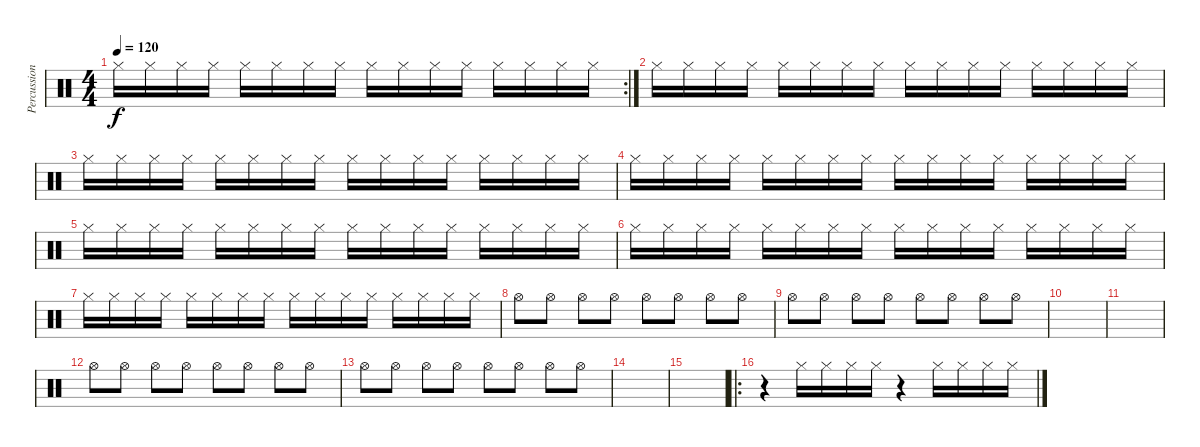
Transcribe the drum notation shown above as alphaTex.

\track ("Percussion" "Percussion") {instrument percussion}
\staff {score}
\articulation defaults
\rc 2
\ts (4 4)
\tempo 120
\clef neutral
\ks c "Hi-Hat (closed)".16{dy f} "Hi-Hat (closed)".16 "Hi-Hat (closed)".16 "Hi-Hat (closed)".16 "Hi-Hat (closed)".16 "Hi-Hat (closed)".16 "Hi-Hat (closed)".16 "Hi-Hat (closed)".16 "Hi-Hat (closed)".16 "Hi-Hat (closed)".16 "Hi-Hat (closed)".16 "Hi-Hat (closed)".16 "Hi-Hat (closed)".16 "Hi-Hat (closed)".16 "Hi-Hat (closed)".16 "Hi-Hat (closed)".16
|
"Hi-Hat (closed)".16 "Hi-Hat (closed)".16 "Hi-Hat (closed)".16 "Hi-Hat (closed)".16 "Hi-Hat (closed)".16 "Hi-Hat (closed)".16 "Hi-Hat (closed)".16 "Hi-Hat (closed)".16 "Hi-Hat (closed)".16 "Hi-Hat (closed)".16 "Hi-Hat (closed)".16 "Hi-Hat (closed)".16 "Hi-Hat (closed)".16 "Hi-Hat (closed)".16 "Hi-Hat (closed)".16 "Hi-Hat (closed)".16 |
"Hi-Hat (closed)".16 "Hi-Hat (closed)".16 "Hi-Hat (closed)".16 "Hi-Hat (closed)".16 "Hi-Hat (closed)".16 "Hi-Hat (closed)".16 "Hi-Hat (closed)".16 "Hi-Hat (closed)".16 "Hi-Hat (closed)".16 "Hi-Hat (closed)".16 "Hi-Hat (closed)".16 "Hi-Hat (closed)".16 "Hi-Hat (closed)".16 "Hi-Hat (closed)".16 "Hi-Hat (closed)".16 "Hi-Hat (closed)".16 |
"Hi-Hat (closed)".16 "Hi-Hat (closed)".16 "Hi-Hat (closed)".16 "Hi-Hat (closed)".16 "Hi-Hat (closed)".16 "Hi-Hat (closed)".16 "Hi-Hat (closed)".16 "Hi-Hat (closed)".16 "Hi-Hat (closed)".16 "Hi-Hat (closed)".16 "Hi-Hat (closed)".16 "Hi-Hat (closed)".16 "Hi-Hat (closed)".16 "Hi-Hat (closed)".16 "Hi-Hat (closed)".16 "Hi-Hat (closed)".16 |
"Hi-Hat (closed)".16 "Hi-Hat (closed)".16 "Hi-Hat (closed)".16 "Hi-Hat (closed)".16 "Hi-Hat (closed)".16 "Hi-Hat (closed)".16 "Hi-Hat (closed)".16 "Hi-Hat (closed)".16 "Hi-Hat (closed)".16 "Hi-Hat (closed)".16 "Hi-Hat (closed)".16 "Hi-Hat (closed)".16 "Hi-Hat (closed)".16 "Hi-Hat (closed)".16 "Hi-Hat (closed)".16 "Hi-Hat (closed)".16 |
"Hi-Hat (closed)".16 "Hi-Hat (closed)".16 "Hi-Hat (closed)".16 "Hi-Hat (closed)".16 "Hi-Hat (closed)".16 "Hi-Hat (closed)".16 "Hi-Hat (closed)".16 "Hi-Hat (closed)".16 "Hi-Hat (closed)".16 "Hi-Hat (closed)".16 "Hi-Hat (closed)".16 "Hi-Hat (closed)".16 "Hi-Hat (closed)".16 "Hi-Hat (closed)".16 "Hi-Hat (closed)".16 "Hi-Hat (closed)".16 |
"Hi-Hat (closed)".16 "Hi-Hat (closed)".16 "Hi-Hat (closed)".16 "Hi-Hat (closed)".16 "Hi-Hat (closed)".16 "Hi-Hat (closed)".16 "Hi-Hat (closed)".16 "Hi-Hat (closed)".16 "Hi-Hat (closed)".16 "Hi-Hat (closed)".16 "Hi-Hat (closed)".16 "Hi-Hat (closed)".16 "Hi-Hat (closed)".16 "Hi-Hat (closed)".16 "Hi-Hat (closed)".16 "Hi-Hat (closed)".16 |
"Hi-Hat (open)".8 "Hi-Hat (open)".8 "Hi-Hat (open)".8 "Hi-Hat (open)".8 "Hi-Hat (open)".8 "Hi-Hat (open)".8 "Hi-Hat (open)".8 "Hi-Hat (open)".8 |
"Hi-Hat (open)".8 "Hi-Hat (open)".8 "Hi-Hat (open)".8 "Hi-Hat (open)".8 "Hi-Hat (open)".8 "Hi-Hat (open)".8 "Hi-Hat (open)".8 "Hi-Hat (open)".8 |
|
|
"Hi-Hat (open)".8 "Hi-Hat (open)".8 "Hi-Hat (open)".8 "Hi-Hat (open)".8 "Hi-Hat (open)".8 "Hi-Hat (open)".8 "Hi-Hat (open)".8 "Hi-Hat (open)".8 |
"Hi-Hat (open)".8 "Hi-Hat (open)".8 "Hi-Hat (open)".8 "Hi-Hat (open)".8 "Hi-Hat (open)".8 "Hi-Hat (open)".8 "Hi-Hat (open)".8 "Hi-Hat (open)".8 |
|
|
\ro
r.4 "Hi-Hat (closed)".16 "Hi-Hat (closed)".16 "Hi-Hat (closed)".16 "Hi-Hat (closed)".16 r.4 "Hi-Hat (closed)".16 "Hi-Hat (closed)".16 "Hi-Hat (closed)".16 "Hi-Hat (closed)".16
